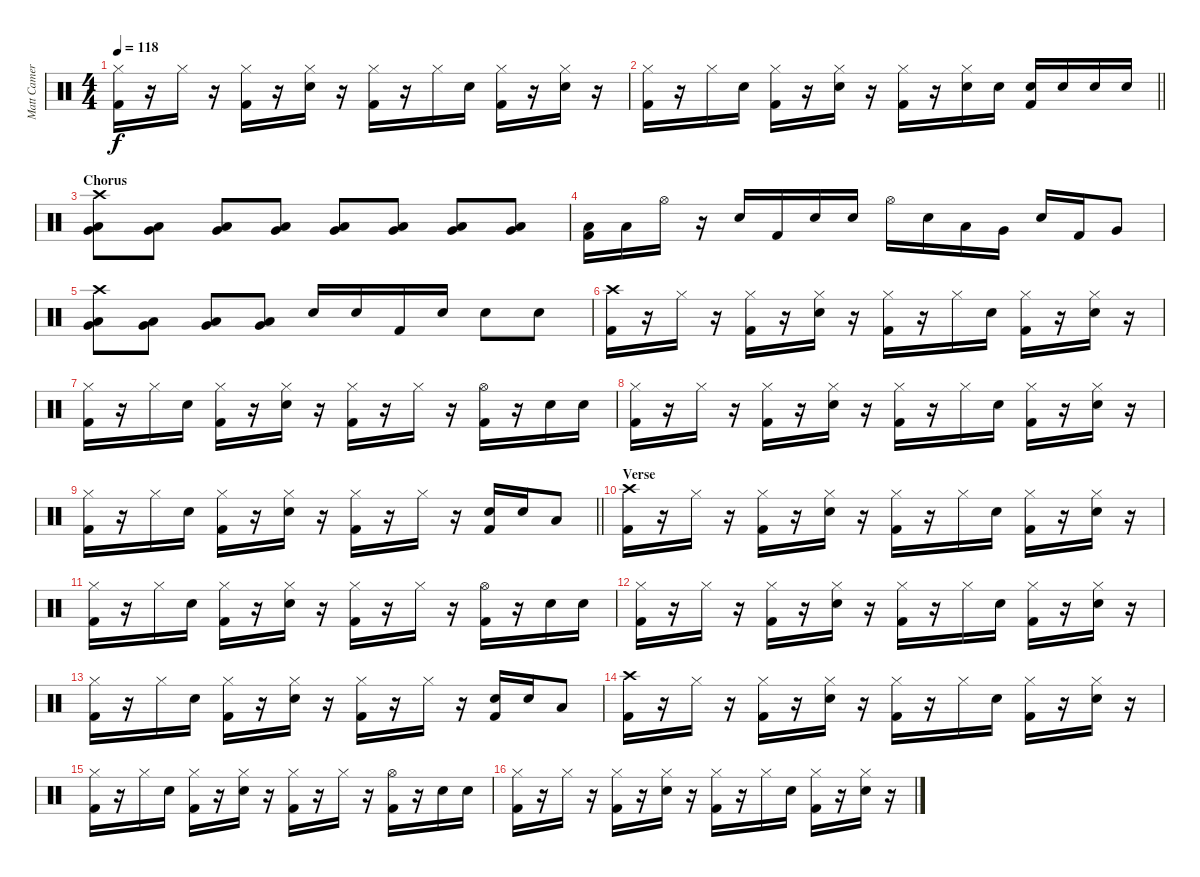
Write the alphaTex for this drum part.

\track ("Matt Cameron" "Matt Camer") {instrument percussion}
\staff {score}
\articulation defaults
\ts (4 4)
\tempo 118
\clef neutral
\ks c
("Hi-Hat (closed)" "Kick (hit) 2").16{dy f} r.16 "Hi-Hat (closed)".16 r.16 ("Hi-Hat (closed)" "Kick (hit) 2").16 r.16 ("Hi-Hat (closed)" "Snare (hit) 2").16 r.16 ("Hi-Hat (closed)" "Kick (hit) 2").16 r.16 "Hi-Hat (closed)".16 "Snare (hit) 2".16 ("Hi-Hat (closed)" "Kick (hit) 2").16 r.16 ("Hi-Hat (closed)" "Snare (hit) 2").16 r.16 |
\barLineRight lightlight
("Hi-Hat (closed)" "Kick (hit) 2").16 r.16 "Hi-Hat (closed)".16 "Snare (hit) 2".16 ("Hi-Hat (closed)" "Kick (hit) 2").16 r.16 ("Hi-Hat (closed)" "Snare (hit) 2").16 r.16 ("Hi-Hat (closed)" "Kick (hit) 2").16 r.16 ("Hi-Hat (closed)" "Electric Snare (hit)").16 "Electric Snare (hit)".16 ("Snare (hit) 2" "Kick (hit) 2").16 "Snare (hit) 2".16 "Snare (hit) 2".16 "Snare (hit) 2".16 |
\section ("" "Chorus")
("Crash high (hit)" "Very Low Tom (hit)" "Low Tom (hit)").8 ("Very Low Tom (hit)" "Low Tom (hit)").8 ("Very Low Tom (hit)" "Low Tom (hit)").8 ("Very Low Tom (hit)" "Low Tom (hit)").8 ("Very Low Tom (hit)" "Low Tom (hit)").8 ("Very Low Tom (hit)" "Low Tom (hit)").8 ("Very Low Tom (hit)" "Low Tom (hit)").8 ("Very Low Tom (hit)" "Low Tom (hit)").8 |
("Low Tom (hit)" "Kick (hit) 2").16 "Low Floor Tom (hit)".16 "Hi-Hat (open)".16 r.16 "Snare (hit) 2".16 "Kick (hit) 2".16 "Snare (hit) 2".16 "Snare (hit) 2".16 "Hi-Hat (open)".16 "Snare (hit) 2".16 "Low Tom (hit)".16 "Very Low Tom (hit)".16 "Snare (hit) 2".16 "Kick (hit) 2".16 "Very Low Tom (hit)".8 |
("Crash high (hit)" "Very Low Tom (hit)" "Low Tom (hit)").8 ("Very Low Tom (hit)" "Low Tom (hit)").8 ("Very Low Tom (hit)" "Low Tom (hit)").8 ("Very Low Tom (hit)" "Low Tom (hit)").8 "Snare (hit) 2".16 "Snare (hit) 2".16 "Kick (hit) 2".16 "Snare (hit) 2".16 "Snare (hit) 2".8 "Snare (hit) 2".8 |
("Crash high (hit)" "Kick (hit) 2").16 r.16 "Hi-Hat (closed)".16 r.16 ("Hi-Hat (closed)" "Kick (hit) 2").16 r.16 ("Hi-Hat (closed)" "Snare (hit) 2").16 r.16 ("Hi-Hat (closed)" "Kick (hit) 2").16 r.16 "Hi-Hat (closed)".16 "Snare (hit) 2".16 ("Hi-Hat (closed)" "Kick (hit) 2").16 r.16 ("Hi-Hat (closed)" "Snare (hit) 2").16 r.16 |
("Hi-Hat (closed)" "Kick (hit) 2").16 r.16 "Hi-Hat (closed)".16 "Snare (hit) 2".16 ("Hi-Hat (closed)" "Kick (hit) 2").16 r.16 ("Hi-Hat (closed)" "Snare (hit) 2").16 r.16 ("Hi-Hat (closed)" "Kick (hit) 2").16 r.16 "Hi-Hat (closed)".16 r.16 ("Hi-Hat (open)" "Kick (hit) 2").16 r.16 "Snare (hit) 2".16 "Snare (hit) 2".16 |
("Hi-Hat (closed)" "Kick (hit) 2").16 r.16 "Hi-Hat (closed)".16 r.16 ("Hi-Hat (closed)" "Kick (hit) 2").16 r.16 ("Hi-Hat (closed)" "Snare (hit) 2").16 r.16 ("Hi-Hat (closed)" "Kick (hit) 2").16 r.16 "Hi-Hat (closed)".16 "Snare (hit) 2".16 ("Hi-Hat (closed)" "Kick (hit) 2").16 r.16 ("Hi-Hat (closed)" "Snare (hit) 2").16 r.16 |
\barLineRight lightlight
("Hi-Hat (closed)" "Kick (hit) 2").16 r.16 "Hi-Hat (closed)".16 "Snare (hit) 2".16 ("Hi-Hat (closed)" "Kick (hit) 2").16 r.16 ("Hi-Hat (closed)" "Snare (hit) 2").16 r.16 ("Hi-Hat (closed)" "Kick (hit) 2").16 r.16 "Hi-Hat (closed)".16 r.16 ("Snare (hit) 2" "Kick (hit) 2").16 "Snare (hit) 2".16 "Low Tom (hit)".8 |
\section ("" "Verse")
("Crash high (hit)" "Kick (hit) 2").16 r.16 "Hi-Hat (closed)".16 r.16 ("Hi-Hat (closed)" "Kick (hit) 2").16 r.16 ("Hi-Hat (closed)" "Snare (hit) 2").16 r.16 ("Hi-Hat (closed)" "Kick (hit) 2").16 r.16 "Hi-Hat (closed)".16 "Snare (hit) 2".16 ("Hi-Hat (closed)" "Kick (hit) 2").16 r.16 ("Hi-Hat (closed)" "Snare (hit) 2").16 r.16 |
("Hi-Hat (closed)" "Kick (hit) 2").16 r.16 "Hi-Hat (closed)".16 "Snare (hit) 2".16 ("Hi-Hat (closed)" "Kick (hit) 2").16 r.16 ("Hi-Hat (closed)" "Snare (hit) 2").16 r.16 ("Hi-Hat (closed)" "Kick (hit) 2").16 r.16 "Hi-Hat (closed)".16 r.16 ("Hi-Hat (open)" "Kick (hit) 2").16 r.16 "Snare (hit) 2".16 "Snare (hit) 2".16 |
("Hi-Hat (closed)" "Kick (hit) 2").16 r.16 "Hi-Hat (closed)".16 r.16 ("Hi-Hat (closed)" "Kick (hit) 2").16 r.16 ("Hi-Hat (closed)" "Snare (hit) 2").16 r.16 ("Hi-Hat (closed)" "Kick (hit) 2").16 r.16 "Hi-Hat (closed)".16 "Snare (hit) 2".16 ("Hi-Hat (closed)" "Kick (hit) 2").16 r.16 ("Hi-Hat (closed)" "Snare (hit) 2").16 r.16 |
("Hi-Hat (closed)" "Kick (hit) 2").16 r.16 "Hi-Hat (closed)".16 "Snare (hit) 2".16 ("Hi-Hat (closed)" "Kick (hit) 2").16 r.16 ("Hi-Hat (closed)" "Snare (hit) 2").16 r.16 ("Hi-Hat (closed)" "Kick (hit) 2").16 r.16 "Hi-Hat (closed)".16 r.16 ("Snare (hit) 2" "Kick (hit) 2").16 "Snare (hit) 2".16 "Low Tom (hit)".8 |
("Crash high (hit)" "Kick (hit) 2").16 r.16 "Hi-Hat (closed)".16 r.16 ("Hi-Hat (closed)" "Kick (hit) 2").16 r.16 ("Hi-Hat (closed)" "Snare (hit) 2").16 r.16 ("Hi-Hat (closed)" "Kick (hit) 2").16 r.16 "Hi-Hat (closed)".16 "Snare (hit) 2".16 ("Hi-Hat (closed)" "Kick (hit) 2").16 r.16 ("Hi-Hat (closed)" "Snare (hit) 2").16 r.16 |
("Hi-Hat (closed)" "Kick (hit) 2").16 r.16 "Hi-Hat (closed)".16 "Snare (hit) 2".16 ("Hi-Hat (closed)" "Kick (hit) 2").16 r.16 ("Hi-Hat (closed)" "Snare (hit) 2").16 r.16 ("Hi-Hat (closed)" "Kick (hit) 2").16 r.16 "Hi-Hat (closed)".16 r.16 ("Hi-Hat (open)" "Kick (hit) 2").16 r.16 "Snare (hit) 2".16 "Snare (hit) 2".16 |
("Hi-Hat (closed)" "Kick (hit) 2").16 r.16 "Hi-Hat (closed)".16 r.16 ("Hi-Hat (closed)" "Kick (hit) 2").16 r.16 ("Hi-Hat (closed)" "Snare (hit) 2").16 r.16 ("Hi-Hat (closed)" "Kick (hit) 2").16 r.16 "Hi-Hat (closed)".16 "Snare (hit) 2".16 ("Hi-Hat (closed)" "Kick (hit) 2").16 r.16 ("Hi-Hat (closed)" "Snare (hit) 2").16 r.16
